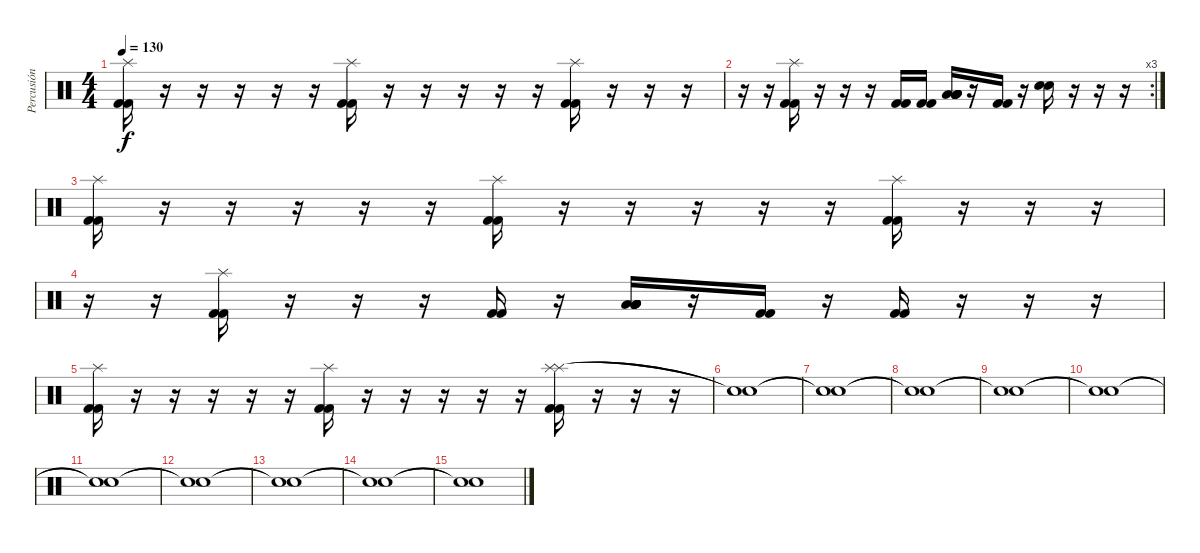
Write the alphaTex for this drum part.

\track ("Percusión" "Percusión") {instrument percussion}
\staff {score}
\articulation defaults
\ts (4 4)
\tempo 130
\clef neutral
\ks c
("Splash (hit)" "Kick (hit) 2" "Kick (hit) 2").16{dy f} r.16 r.16 r.16 r.16 r.16 ("Splash (hit)" "Kick (hit) 2" "Kick (hit) 2").16 r.16 r.16 r.16 r.16 r.16 ("Splash (hit)" "Kick (hit) 2" "Kick (hit) 2").16 r.16 r.16 r.16 |
\rc 3
r.16 r.16 ("Splash (hit)" "Kick (hit) 2" "Kick (hit) 2").16 r.16 r.16 r.16 ("Kick (hit) 2" "Kick (hit) 2").16 ("Kick (hit) 2" "Kick (hit) 2").16 ("Low Tom (hit)" "Low Tom (hit)" "Low Tom (hit)" "Low Tom (hit)" "Low Tom (hit)" "Low Tom (hit)").16 r.16 ("Kick (hit) 2" "Kick (hit) 2").16 r.16 ("Electric Snare (hit)" "Electric Snare (hit)").16 r.16 r.16 r.16 |
("Splash (hit)" "Kick (hit) 2" "Kick (hit) 2").16 r.16 r.16 r.16 r.16 r.16 ("Splash (hit)" "Kick (hit) 2" "Kick (hit) 2").16 r.16 r.16 r.16 r.16 r.16 ("Splash (hit)" "Kick (hit) 2" "Kick (hit) 2").16 r.16 r.16 r.16 |
r.16 r.16 ("Splash (hit)" "Kick (hit) 2" "Kick (hit) 2").16 r.16 r.16 r.16 ("Kick (hit) 2" "Kick (hit) 2").16 r.16 ("Low Tom (hit)" "Low Tom (hit)" "Low Tom (hit)" "Low Tom (hit)" "Low Tom (hit)" "Low Tom (hit)").16 r.16 ("Kick (hit) 2" "Kick (hit) 2").16 r.16 ("Kick (hit) 2" "Kick (hit) 2").16 r.16 r.16 r.16 |
("Splash (hit)" "Kick (hit) 2" "Kick (hit) 2").16 r.16 r.16 r.16 r.16 r.16 ("Splash (hit)" "Kick (hit) 2" "Kick (hit) 2").16 r.16 r.16 r.16 r.16 r.16 ("Splash (hit)" "Splash (hit)" "Kick (hit) 2" "Kick (hit) 2").16 r.16 r.16 r.16 |
("Snare (hit)"{t} "Snare (hit)"{t}).1 |
("Snare (hit)"{t} "Snare (hit)"{t}).1 |
("Snare (hit)"{t} "Snare (hit)"{t}).1 |
("Snare (hit)"{t} "Snare (hit)"{t}).1 |
("Snare (hit)"{t} "Snare (hit)"{t}).1 |
("Snare (hit)"{t} "Snare (hit)"{t}).1 |
("Snare (hit)"{t} "Snare (hit)"{t}).1 |
("Snare (hit)"{t} "Snare (hit)"{t}).1 |
("Snare (hit)"{t} "Snare (hit)"{t}).1 |
("Snare (hit)"{t} "Snare (hit)"{t}).1
